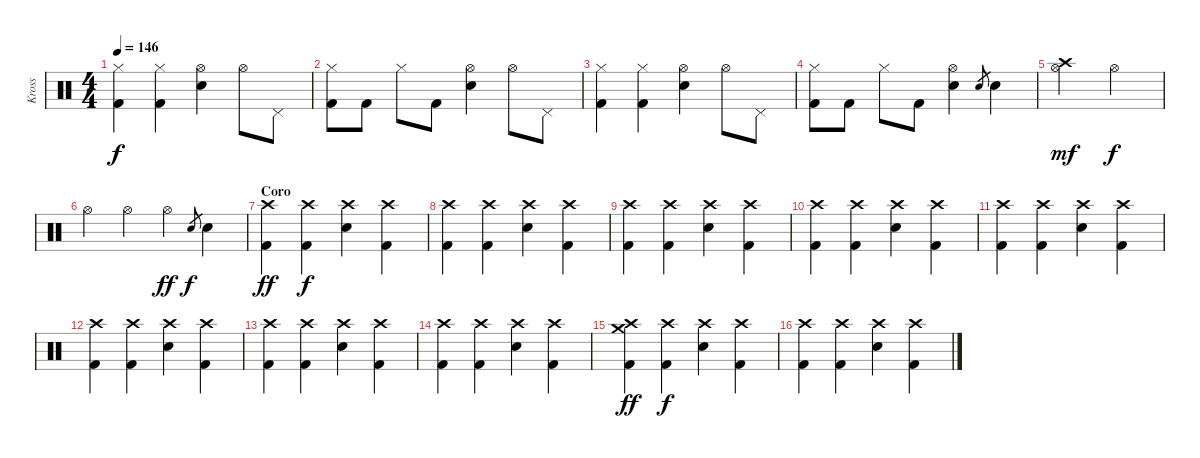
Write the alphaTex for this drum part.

\track ("Kross" "Kross") {instrument percussion}
\staff {score}
\articulation defaults
\ts (4 4)
\tempo 146
\clef neutral
\ks c
("Hi-Hat (closed)" "Kick (hit) 2").4{dy f} ("Hi-Hat (closed)" "Kick (hit) 2").4 ("Hi-Hat (open)" "Snare (hit) 2").4 "Hi-Hat (open)".8 "Pedal Hi-Hat (hit)".8 |
("Hi-Hat (closed)" "Kick (hit) 2").8 "Kick (hit) 2".8 "Hi-Hat (closed)".8 "Kick (hit) 2".8 ("Hi-Hat (open)" "Snare (hit) 2").4 "Hi-Hat (open)".8 "Pedal Hi-Hat (hit)".8 |
("Hi-Hat (closed)" "Kick (hit) 2").4 ("Hi-Hat (closed)" "Kick (hit) 2").4 ("Hi-Hat (open)" "Snare (hit) 2").4 "Hi-Hat (open)".8 "Pedal Hi-Hat (hit)".8 |
("Hi-Hat (closed)" "Kick (hit) 2").8 "Kick (hit) 2".8 "Hi-Hat (closed)".8 "Kick (hit) 2".8 ("Hi-Hat (open)" "Snare (hit) 2").4 "Snare (hit) 2".8{gr} "Snare (hit) 2".4 |
("Crash high (hit)" "Hi-Hat (open)").2{dy mf} "Hi-Hat (open)".2{dy f} |
"Hi-Hat (open)".4 "Hi-Hat (open)".4 "Hi-Hat (open)".4{dy ff} "Snare (hit) 2".8{gr dy f} "Snare (hit) 2".4 |
\section ("" "Coro")
("Crash high (hit)" "Kick (hit) 2").4{dy ff} ("Crash high (hit)" "Kick (hit) 2").4{dy f} ("Crash high (hit)" "Snare (hit) 2").4 ("Crash high (hit)" "Kick (hit) 2").4 |
("Crash high (hit)" "Kick (hit) 2").4 ("Crash high (hit)" "Kick (hit) 2").4 ("Crash high (hit)" "Snare (hit) 2").4 ("Crash high (hit)" "Kick (hit) 2").4 |
("Crash high (hit)" "Kick (hit) 2").4 ("Crash high (hit)" "Kick (hit) 2").4 ("Crash high (hit)" "Snare (hit) 2").4 ("Crash high (hit)" "Kick (hit) 2").4 |
("Crash high (hit)" "Kick (hit) 2").4 ("Crash high (hit)" "Kick (hit) 2").4 ("Crash high (hit)" "Snare (hit) 2").4 ("Crash high (hit)" "Kick (hit) 2").4 |
("Crash high (hit)" "Kick (hit) 2").4 ("Crash high (hit)" "Kick (hit) 2").4 ("Crash high (hit)" "Snare (hit) 2").4 ("Crash high (hit)" "Kick (hit) 2").4 |
("Crash high (hit)" "Kick (hit) 2").4 ("Crash high (hit)" "Kick (hit) 2").4 ("Crash high (hit)" "Snare (hit) 2").4 ("Crash high (hit)" "Kick (hit) 2").4 |
("Crash high (hit)" "Kick (hit) 2").4 ("Crash high (hit)" "Kick (hit) 2").4 ("Crash high (hit)" "Snare (hit) 2").4 ("Crash high (hit)" "Kick (hit) 2").4 |
("Crash high (hit)" "Kick (hit) 2").4 ("Crash high (hit)" "Kick (hit) 2").4 ("Crash high (hit)" "Snare (hit) 2").4 ("Crash high (hit)" "Kick (hit) 2").4 |
("Crash high (hit)" "Crash medium (hit)" "Kick (hit) 2").4{dy ff} ("Crash high (hit)" "Kick (hit) 2").4{dy f} ("Crash high (hit)" "Snare (hit) 2").4 ("Crash high (hit)" "Kick (hit) 2").4 |
("Crash high (hit)" "Kick (hit) 2").4 ("Crash high (hit)" "Kick (hit) 2").4 ("Crash high (hit)" "Snare (hit) 2").4 ("Crash high (hit)" "Kick (hit) 2").4
